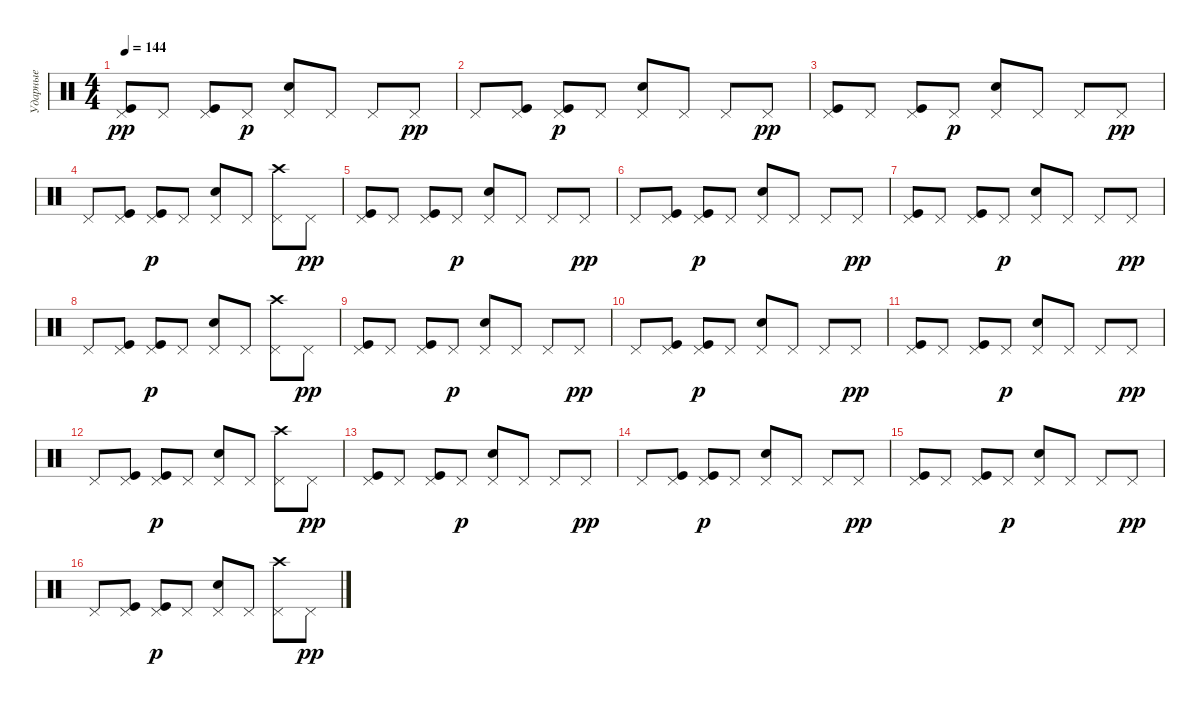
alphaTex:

\track ("Ударные" "Ударные") {instrument percussion}
\staff {score}
\articulation defaults
\ts (4 4)
\tempo 144
\clef neutral
\ks c
("Kick (hit)" "Pedal Hi-Hat (hit)").8{dy pp} "Pedal Hi-Hat (hit)".8 ("Kick (hit)" "Pedal Hi-Hat (hit)").8 "Pedal Hi-Hat (hit)".8{dy p} ("Snare (hit) 2" "Pedal Hi-Hat (hit)").8 "Pedal Hi-Hat (hit)".8 "Pedal Hi-Hat (hit)".8 "Pedal Hi-Hat (hit)".8{dy pp} |
"Pedal Hi-Hat (hit)".8 ("Kick (hit)" "Pedal Hi-Hat (hit)").8 ("Kick (hit)" "Pedal Hi-Hat (hit)").8{dy p} "Pedal Hi-Hat (hit)".8 ("Snare (hit) 2" "Pedal Hi-Hat (hit)").8 "Pedal Hi-Hat (hit)".8 "Pedal Hi-Hat (hit)".8 "Pedal Hi-Hat (hit)".8{dy pp} |
("Kick (hit)" "Pedal Hi-Hat (hit)").8 "Pedal Hi-Hat (hit)".8 ("Kick (hit)" "Pedal Hi-Hat (hit)").8 "Pedal Hi-Hat (hit)".8{dy p} ("Snare (hit) 2" "Pedal Hi-Hat (hit)").8 "Pedal Hi-Hat (hit)".8 "Pedal Hi-Hat (hit)".8 "Pedal Hi-Hat (hit)".8{dy pp} |
"Pedal Hi-Hat (hit)".8 ("Kick (hit)" "Pedal Hi-Hat (hit)").8 ("Kick (hit)" "Pedal Hi-Hat (hit)").8{dy p} "Pedal Hi-Hat (hit)".8 ("Snare (hit) 2" "Pedal Hi-Hat (hit)").8 "Pedal Hi-Hat (hit)".8 ("Crash high (hit)" "Pedal Hi-Hat (hit)").8 "Pedal Hi-Hat (hit)".8{dy pp} |
("Kick (hit)" "Pedal Hi-Hat (hit)").8 "Pedal Hi-Hat (hit)".8 ("Kick (hit)" "Pedal Hi-Hat (hit)").8 "Pedal Hi-Hat (hit)".8{dy p} ("Snare (hit) 2" "Pedal Hi-Hat (hit)").8 "Pedal Hi-Hat (hit)".8 "Pedal Hi-Hat (hit)".8 "Pedal Hi-Hat (hit)".8{dy pp} |
"Pedal Hi-Hat (hit)".8 ("Kick (hit)" "Pedal Hi-Hat (hit)").8 ("Kick (hit)" "Pedal Hi-Hat (hit)").8{dy p} "Pedal Hi-Hat (hit)".8 ("Snare (hit) 2" "Pedal Hi-Hat (hit)").8 "Pedal Hi-Hat (hit)".8 "Pedal Hi-Hat (hit)".8 "Pedal Hi-Hat (hit)".8{dy pp} |
("Kick (hit)" "Pedal Hi-Hat (hit)").8 "Pedal Hi-Hat (hit)".8 ("Kick (hit)" "Pedal Hi-Hat (hit)").8 "Pedal Hi-Hat (hit)".8{dy p} ("Snare (hit) 2" "Pedal Hi-Hat (hit)").8 "Pedal Hi-Hat (hit)".8 "Pedal Hi-Hat (hit)".8 "Pedal Hi-Hat (hit)".8{dy pp} |
"Pedal Hi-Hat (hit)".8 ("Kick (hit)" "Pedal Hi-Hat (hit)").8 ("Kick (hit)" "Pedal Hi-Hat (hit)").8{dy p} "Pedal Hi-Hat (hit)".8 ("Snare (hit) 2" "Pedal Hi-Hat (hit)").8 "Pedal Hi-Hat (hit)".8 ("Crash high (hit)" "Pedal Hi-Hat (hit)").8 "Pedal Hi-Hat (hit)".8{dy pp} |
("Kick (hit)" "Pedal Hi-Hat (hit)").8 "Pedal Hi-Hat (hit)".8 ("Kick (hit)" "Pedal Hi-Hat (hit)").8 "Pedal Hi-Hat (hit)".8{dy p} ("Snare (hit) 2" "Pedal Hi-Hat (hit)").8 "Pedal Hi-Hat (hit)".8 "Pedal Hi-Hat (hit)".8 "Pedal Hi-Hat (hit)".8{dy pp} |
"Pedal Hi-Hat (hit)".8 ("Kick (hit)" "Pedal Hi-Hat (hit)").8 ("Kick (hit)" "Pedal Hi-Hat (hit)").8{dy p} "Pedal Hi-Hat (hit)".8 ("Snare (hit) 2" "Pedal Hi-Hat (hit)").8 "Pedal Hi-Hat (hit)".8 "Pedal Hi-Hat (hit)".8 "Pedal Hi-Hat (hit)".8{dy pp} |
("Kick (hit)" "Pedal Hi-Hat (hit)").8 "Pedal Hi-Hat (hit)".8 ("Kick (hit)" "Pedal Hi-Hat (hit)").8 "Pedal Hi-Hat (hit)".8{dy p} ("Snare (hit) 2" "Pedal Hi-Hat (hit)").8 "Pedal Hi-Hat (hit)".8 "Pedal Hi-Hat (hit)".8 "Pedal Hi-Hat (hit)".8{dy pp} |
"Pedal Hi-Hat (hit)".8 ("Kick (hit)" "Pedal Hi-Hat (hit)").8 ("Kick (hit)" "Pedal Hi-Hat (hit)").8{dy p} "Pedal Hi-Hat (hit)".8 ("Snare (hit) 2" "Pedal Hi-Hat (hit)").8 "Pedal Hi-Hat (hit)".8 ("Crash high (hit)" "Pedal Hi-Hat (hit)").8 "Pedal Hi-Hat (hit)".8{dy pp} |
("Kick (hit)" "Pedal Hi-Hat (hit)").8 "Pedal Hi-Hat (hit)".8 ("Kick (hit)" "Pedal Hi-Hat (hit)").8 "Pedal Hi-Hat (hit)".8{dy p} ("Snare (hit) 2" "Pedal Hi-Hat (hit)").8 "Pedal Hi-Hat (hit)".8 "Pedal Hi-Hat (hit)".8 "Pedal Hi-Hat (hit)".8{dy pp} |
"Pedal Hi-Hat (hit)".8 ("Kick (hit)" "Pedal Hi-Hat (hit)").8 ("Kick (hit)" "Pedal Hi-Hat (hit)").8{dy p} "Pedal Hi-Hat (hit)".8 ("Snare (hit) 2" "Pedal Hi-Hat (hit)").8 "Pedal Hi-Hat (hit)".8 "Pedal Hi-Hat (hit)".8 "Pedal Hi-Hat (hit)".8{dy pp} |
("Kick (hit)" "Pedal Hi-Hat (hit)").8 "Pedal Hi-Hat (hit)".8 ("Kick (hit)" "Pedal Hi-Hat (hit)").8 "Pedal Hi-Hat (hit)".8{dy p} ("Snare (hit) 2" "Pedal Hi-Hat (hit)").8 "Pedal Hi-Hat (hit)".8 "Pedal Hi-Hat (hit)".8 "Pedal Hi-Hat (hit)".8{dy pp} |
"Pedal Hi-Hat (hit)".8 ("Kick (hit)" "Pedal Hi-Hat (hit)").8 ("Kick (hit)" "Pedal Hi-Hat (hit)").8{dy p} "Pedal Hi-Hat (hit)".8 ("Snare (hit) 2" "Pedal Hi-Hat (hit)").8 "Pedal Hi-Hat (hit)".8 ("Crash high (hit)" "Pedal Hi-Hat (hit)").8 "Pedal Hi-Hat (hit)".8{dy pp}
